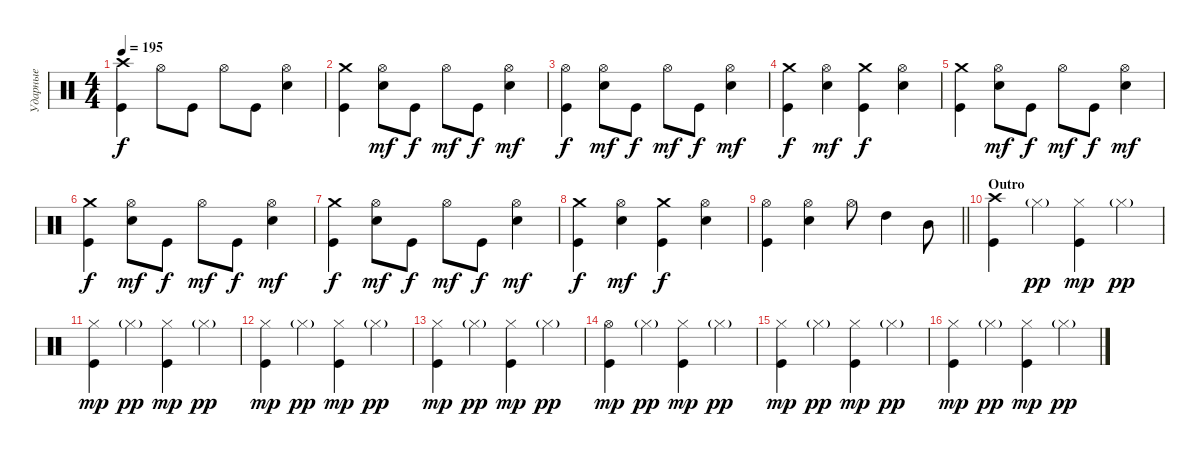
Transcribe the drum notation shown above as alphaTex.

\track ("Ударные" "Ударные") {instrument percussion}
\staff {score}
\articulation defaults
\ts (4 4)
\tempo 195
\clef neutral
\ks c
("Kick (hit)" "Crash high (hit)").4{dy f} "Hi-Hat (open)".8 "Kick (hit)".8 "Hi-Hat (open)".8 "Kick (hit)".8 ("Snare (hit) 2" "Hi-Hat (open)").4 |
("Kick (hit)" "Crash medium (hit)").4 ("Snare (hit) 2" "Hi-Hat (open)").8{dy mf} "Kick (hit)".8{dy f} "Hi-Hat (open)".8{dy mf} "Kick (hit)".8{dy f} ("Snare (hit) 2" "Hi-Hat (open)").4{dy mf} |
("Kick (hit)" "Hi-Hat (open)").4{dy f} ("Snare (hit) 2" "Hi-Hat (open)").8{dy mf} "Kick (hit)".8{dy f} "Hi-Hat (open)".8{dy mf} "Kick (hit)".8{dy f} ("Snare (hit) 2" "Hi-Hat (open)").4{dy mf} |
("Kick (hit)" "Crash medium (hit)").4{dy f} ("Snare (hit) 2" "Hi-Hat (open)").4{dy mf} ("Kick (hit)" "Crash medium (hit)").4{dy f} ("Snare (hit) 2" "Hi-Hat (open)").4 |
("Kick (hit)" "Crash medium (hit)").4 ("Snare (hit) 2" "Hi-Hat (open)").8{dy mf} "Kick (hit)".8{dy f} "Hi-Hat (open)".8{dy mf} "Kick (hit)".8{dy f} ("Snare (hit) 2" "Hi-Hat (open)").4{dy mf} |
("Kick (hit)" "Crash medium (hit)").4{dy f} ("Snare (hit) 2" "Hi-Hat (open)").8{dy mf} "Kick (hit)".8{dy f} "Hi-Hat (open)".8{dy mf} "Kick (hit)".8{dy f} ("Snare (hit) 2" "Hi-Hat (open)").4{dy mf} |
("Kick (hit)" "Crash medium (hit)").4{dy f} ("Snare (hit) 2" "Hi-Hat (open)").8{dy mf} "Kick (hit)".8{dy f} "Hi-Hat (open)".8{dy mf} "Kick (hit)".8{dy f} ("Snare (hit) 2" "Hi-Hat (open)").4{dy mf} |
("Kick (hit)" "Crash medium (hit)").4{dy f} ("Snare (hit) 2" "Hi-Hat (open)").4{dy mf} ("Kick (hit)" "Crash medium (hit)").4{dy f} ("Snare (hit) 2" "Hi-Hat (open)").4 |
\barLineRight lightlight
("Kick (hit)" "Hi-Hat (open)").4 ("Snare (hit) 2" "Hi-Hat (open)").4 "Hi-Hat (open)".8 "High Tom (hit)".4 "Mid Tom (hit)".8 |
\section ("" "Outro")
("Kick (hit)" "Crash high (hit)").4 "Hi-Hat (closed)"{g}.4{dy pp} ("Kick (hit)" "Hi-Hat (closed)").4{dy mp} "Hi-Hat (closed)"{g}.4{dy pp} |
("Hi-Hat (closed)" "Kick (hit)").4{dy mp} "Hi-Hat (closed)"{g}.4{dy pp} ("Hi-Hat (closed)" "Kick (hit)").4{dy mp} "Hi-Hat (closed)"{g}.4{dy pp} |
("Hi-Hat (closed)" "Kick (hit)").4{dy mp} "Hi-Hat (closed)"{g}.4{dy pp} ("Hi-Hat (closed)" "Kick (hit)").4{dy mp} "Hi-Hat (closed)"{g}.4{dy pp} |
("Hi-Hat (closed)" "Kick (hit)").4{dy mp} "Hi-Hat (closed)"{g}.4{dy pp} ("Hi-Hat (closed)" "Kick (hit)").4{dy mp} "Hi-Hat (closed)"{g}.4{dy pp} |
("Hi-Hat (open)" "Kick (hit)").4{dy mp} "Hi-Hat (closed)"{g}.4{dy pp} ("Hi-Hat (closed)" "Kick (hit)").4{dy mp} "Hi-Hat (closed)"{g}.4{dy pp} |
("Hi-Hat (closed)" "Kick (hit)").4{dy mp} "Hi-Hat (closed)"{g}.4{dy pp} ("Hi-Hat (closed)" "Kick (hit)").4{dy mp} "Hi-Hat (closed)"{g}.4{dy pp} |
("Hi-Hat (closed)" "Kick (hit)").4{dy mp} "Hi-Hat (closed)"{g}.4{dy pp} ("Hi-Hat (closed)" "Kick (hit)").4{dy mp} "Hi-Hat (closed)"{g}.4{dy pp}
